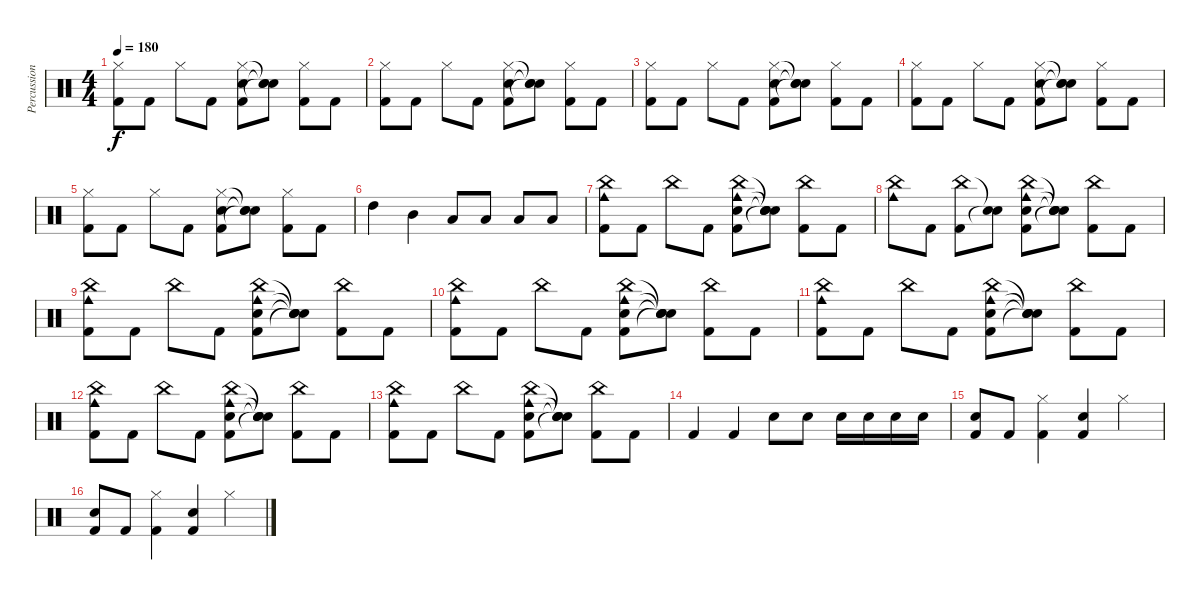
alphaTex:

\track ("Percussion" "Percussion") {instrument percussion}
\staff {score}
\articulation defaults
\ts (4 4)
\tempo 180
\clef neutral
\ks c
("Hi-Hat (closed)" "Kick (hit) 2").8{dy f} "Kick (hit) 2".8 "Hi-Hat (closed)".8 "Kick (hit) 2".8 ("Hi-Hat (closed)" "Snare (hit) 2" "Kick (hit) 2").8 ("Snare (hit)"{t} "Snare (hit)"{t} "Snare (hit)"{t}).8 ("Hi-Hat (closed)" "Kick (hit) 2").8 "Kick (hit) 2".8 |
("Hi-Hat (closed)" "Kick (hit) 2").8 "Kick (hit) 2".8 "Hi-Hat (closed)".8 "Kick (hit) 2".8 ("Hi-Hat (closed)" "Snare (hit) 2" "Kick (hit) 2").8 ("Snare (hit)"{t} "Snare (hit)"{t} "Snare (hit)"{t}).8 ("Hi-Hat (closed)" "Kick (hit) 2").8 "Kick (hit) 2".8 |
("Hi-Hat (closed)" "Kick (hit) 2").8 "Kick (hit) 2".8 "Hi-Hat (closed)".8 "Kick (hit) 2".8 ("Hi-Hat (closed)" "Snare (hit) 2" "Kick (hit) 2").8 ("Snare (hit)"{t} "Snare (hit)"{t} "Snare (hit)"{t}).8 ("Hi-Hat (closed)" "Kick (hit) 2").8 "Kick (hit) 2".8 |
("Hi-Hat (closed)" "Kick (hit) 2").8 "Kick (hit) 2".8 "Hi-Hat (closed)".8 "Kick (hit) 2".8 ("Hi-Hat (closed)" "Snare (hit) 2" "Kick (hit) 2").8 ("Snare (hit)"{t} "Snare (hit)"{t} "Snare (hit)"{t}).8 ("Hi-Hat (closed)" "Kick (hit) 2").8 "Kick (hit) 2".8 |
("Hi-Hat (closed)" "Kick (hit) 2").8 "Kick (hit) 2".8 "Hi-Hat (closed)".8 "Kick (hit) 2".8 ("Hi-Hat (closed)" "Snare (hit) 2" "Kick (hit) 2").8 ("Snare (hit)"{t} "Snare (hit)"{t} "Snare (hit)"{t}).8 ("Hi-Hat (closed)" "Kick (hit) 2").8 "Kick (hit) 2".8 |
"High Tom (hit)".4 "Mid Tom (hit)".4 "Low Tom (hit)".8 "Low Tom (hit)".8 "Low Tom (hit)".8 "Low Tom (hit)".8 |
("China (hit)" "Cowbell medium (hit)" "Kick (hit) 2").8 "Kick (hit) 2".8 "China (hit)".8 "Kick (hit) 2".8 ("China (hit)" "Cowbell medium (hit)" "Snare (hit) 2" "Kick (hit) 2").8 ("Snare (hit)"{t} "Snare (hit)"{t} "Snare (hit)"{t} "Snare (hit)"{t}).8 ("China (hit)" "Kick (hit) 2").8 "Kick (hit) 2".8 |
("China (hit)" "Cowbell medium (hit)").8 "Kick (hit) 2".8 ("China (hit)" "Kick (hit) 2").8 ("Snare (hit)"{t} "Snare (hit)"{t}).8 ("China (hit)" "Cowbell medium (hit)" "Snare (hit) 2" "Kick (hit) 2").8 ("Snare (hit)"{t} "Snare (hit)"{t} "Snare (hit)"{t} "Snare (hit)"{t}).8 ("China (hit)" "Kick (hit) 2").8 "Kick (hit) 2".8 |
("China (hit)" "Cowbell medium (hit)" "Kick (hit) 2").8 "Kick (hit) 2".8 "China (hit)".8 "Kick (hit) 2".8 ("China (hit)" "Cowbell medium (hit)" "Snare (hit) 2" "Kick (hit) 2").8 ("Snare (hit)"{t} "Snare (hit)"{t} "Snare (hit)"{t} "Snare (hit)"{t}).8 ("China (hit)" "Kick (hit) 2").8 "Kick (hit) 2".8 |
("China (hit)" "Cowbell medium (hit)" "Kick (hit) 2").8 "Kick (hit) 2".8 "China (hit)".8 "Kick (hit) 2".8 ("China (hit)" "Cowbell medium (hit)" "Snare (hit) 2" "Kick (hit) 2").8 ("Snare (hit)"{t} "Snare (hit)"{t} "Snare (hit)"{t} "Snare (hit)"{t}).8 ("China (hit)" "Kick (hit) 2").8 "Kick (hit) 2".8 |
("China (hit)" "Cowbell medium (hit)" "Kick (hit) 2").8 "Kick (hit) 2".8 "China (hit)".8 "Kick (hit) 2".8 ("China (hit)" "Cowbell medium (hit)" "Snare (hit) 2" "Kick (hit) 2").8 ("Snare (hit)"{t} "Snare (hit)"{t} "Snare (hit)"{t} "Snare (hit)"{t}).8 ("China (hit)" "Kick (hit) 2").8 "Kick (hit) 2".8 |
("China (hit)" "Cowbell medium (hit)" "Kick (hit) 2").8 "Kick (hit) 2".8 "China (hit)".8 "Kick (hit) 2".8 ("China (hit)" "Cowbell medium (hit)" "Snare (hit) 2" "Kick (hit) 2").8 ("Snare (hit)"{t} "Snare (hit)"{t} "Snare (hit)"{t} "Snare (hit)"{t}).8 ("China (hit)" "Kick (hit) 2").8 "Kick (hit) 2".8 |
("China (hit)" "Cowbell medium (hit)" "Kick (hit) 2").8 "Kick (hit) 2".8 "China (hit)".8 "Kick (hit) 2".8 ("China (hit)" "Cowbell medium (hit)" "Snare (hit) 2" "Kick (hit) 2").8 ("Snare (hit)"{t} "Snare (hit)"{t} "Snare (hit)"{t} "Snare (hit)"{t}).8 ("China (hit)" "Kick (hit) 2").8 "Kick (hit) 2".8 |
"Kick (hit) 2".4 "Kick (hit) 2".4 "Snare (hit) 2".8 "Snare (hit) 2".8 "Snare (hit) 2".16 "Snare (hit) 2".16 "Snare (hit) 2".16 "Snare (hit) 2".16 |
("Snare (hit) 2" "Kick (hit) 2").8 "Kick (hit) 2".8 ("Hi-Hat (closed)" "Kick (hit) 2").4 ("Snare (hit) 2" "Kick (hit) 2").4 "Hi-Hat (closed)".4 |
("Snare (hit) 2" "Kick (hit) 2").8 "Kick (hit) 2".8 ("Hi-Hat (closed)" "Kick (hit) 2").4 ("Snare (hit) 2" "Kick (hit) 2").4 "Hi-Hat (closed)".4
